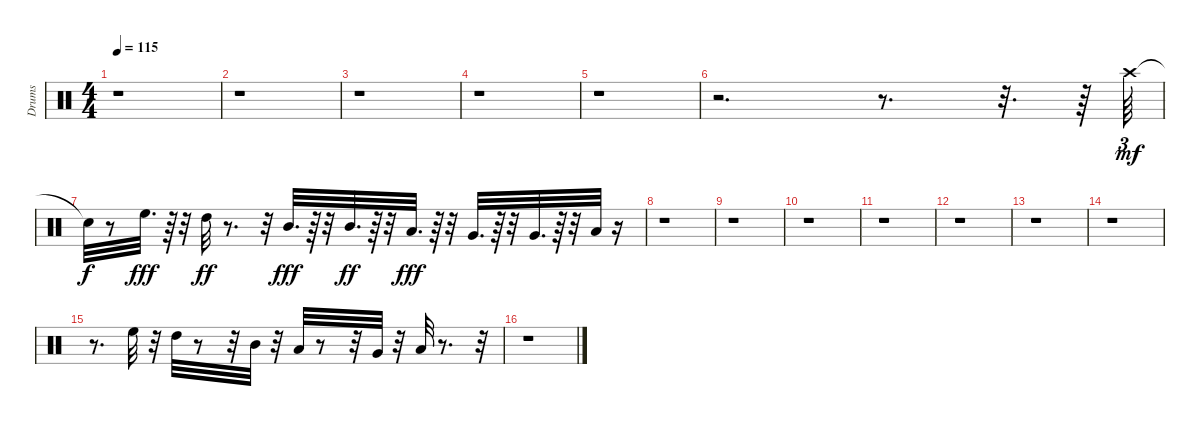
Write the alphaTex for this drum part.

\track ("Drums" "Drums") {instrument percussion}
\staff {score}
\articulation defaults
\ts (4 4)
\tempo 115
\clef neutral
\ks c
r.1{dy fff} |
r.1 |
r.1 |
r.1 |
r.1 |
r.2{d} r.8{d} r.32{d} r.64 "Crash high (hit)".64{tu (3 2) dy mf} |
"Snare (hit)"{t}.32{dy f} r.8 "High Floor Tom (hit)".32{d dy fff} r.64 r.32 "High Tom (hit)".32{dy ff} r.8{d} r.32 "Mid Tom (hit)".32{d dy fff} r.64 r.32 "Mid Tom (hit)".32{d dy ff} r.64 r.32 "Low Tom (hit)".32{d dy fff} r.64 r.32 "Very Low Tom (hit)".32{d} r.64 r.32 "Very Low Tom (hit)".32{d} r.64 r.32 "Low Floor Tom (hit)".32 r.16 |
r.1 |
r.1 |
r.1 |
r.1 |
r.1 |
r.1 |
r.1 |
r.8{d} "High Floor Tom (hit)".32 r.32 "High Tom (hit)".32 r.8 r.32 "Mid Tom (hit)".32 r.32 "Low Tom (hit)".32 r.8 r.32 "Very Low Tom (hit)".32 r.32 "Low Floor Tom (hit)".32 r.8{d} r.32 |
r.1
